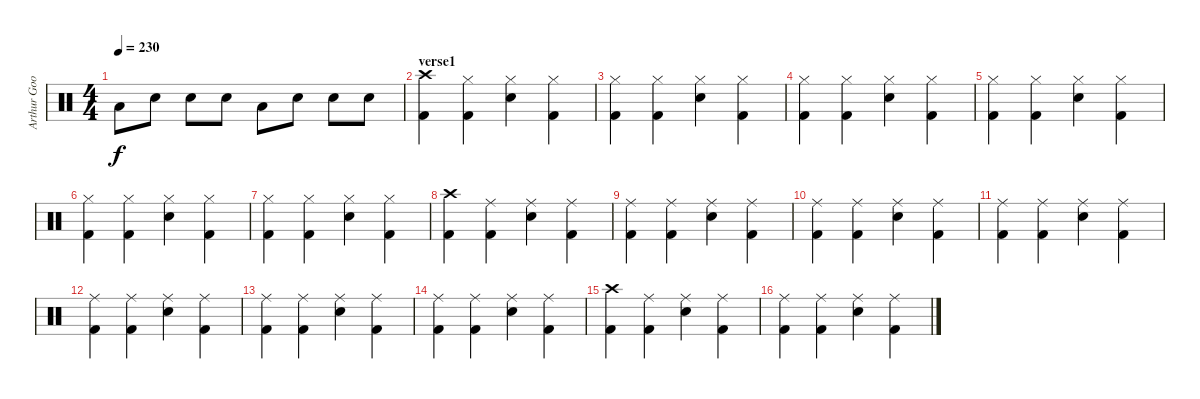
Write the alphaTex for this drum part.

\track ("Arthur Googy" "Arthur Goo") {instrument percussion}
\staff {score}
\articulation defaults
\ts (4 4)
\tempo 230
\clef neutral
\ks c "Low Tom (hit)".8{dy f} "Electric Snare (hit)".8 "Electric Snare (hit)".8 "Electric Snare (hit)".8 "Low Tom (hit)".8 "Electric Snare (hit)".8 "Electric Snare (hit)".8 "Electric Snare (hit)".8
|
\section ("" "verse1")
("Crash high (hit)" "Kick (hit) 2").4 ("Hi-Hat (closed)" "Kick (hit) 2").4 ("Hi-Hat (closed)" "Electric Snare (hit)").4 ("Hi-Hat (closed)" "Kick (hit) 2").4 |
("Hi-Hat (closed)" "Kick (hit) 2").4 ("Hi-Hat (closed)" "Kick (hit) 2").4 ("Hi-Hat (closed)" "Electric Snare (hit)").4 ("Hi-Hat (closed)" "Kick (hit) 2").4 |
("Hi-Hat (closed)" "Kick (hit) 2").4 ("Hi-Hat (closed)" "Kick (hit) 2").4 ("Hi-Hat (closed)" "Electric Snare (hit)").4 ("Hi-Hat (closed)" "Kick (hit) 2").4 |
("Hi-Hat (closed)" "Kick (hit) 2").4 ("Hi-Hat (closed)" "Kick (hit) 2").4 ("Hi-Hat (closed)" "Electric Snare (hit)").4 ("Hi-Hat (closed)" "Kick (hit) 2").4 |
("Hi-Hat (closed)" "Kick (hit) 2").4 ("Hi-Hat (closed)" "Kick (hit) 2").4 ("Hi-Hat (closed)" "Electric Snare (hit)").4 ("Hi-Hat (closed)" "Kick (hit) 2").4 |
("Hi-Hat (closed)" "Kick (hit) 2").4 ("Hi-Hat (closed)" "Kick (hit) 2").4 ("Hi-Hat (closed)" "Electric Snare (hit)").4 ("Hi-Hat (closed)" "Kick (hit) 2").4 |
("Crash high (hit)" "Kick (hit) 2").4 ("Ride (middle)" "Kick (hit) 2").4 ("Ride (middle)" "Electric Snare (hit)").4 ("Ride (middle)" "Kick (hit) 2").4 |
("Ride (middle)" "Kick (hit) 2").4 ("Ride (middle)" "Kick (hit) 2").4 ("Ride (middle)" "Electric Snare (hit)").4 ("Ride (middle)" "Kick (hit) 2").4 |
("Ride (middle)" "Kick (hit) 2").4 ("Ride (middle)" "Kick (hit) 2").4 ("Ride (middle)" "Electric Snare (hit)").4 ("Ride (middle)" "Kick (hit) 2").4 |
("Ride (middle)" "Kick (hit) 2").4 ("Ride (middle)" "Kick (hit) 2").4 ("Ride (middle)" "Electric Snare (hit)").4 ("Ride (middle)" "Kick (hit) 2").4 |
("Ride (middle)" "Kick (hit) 2").4 ("Ride (middle)" "Kick (hit) 2").4 ("Ride (middle)" "Electric Snare (hit)").4 ("Ride (middle)" "Kick (hit) 2").4 |
("Ride (middle)" "Kick (hit) 2").4 ("Ride (middle)" "Kick (hit) 2").4 ("Ride (middle)" "Electric Snare (hit)").4 ("Ride (middle)" "Kick (hit) 2").4 |
("Ride (middle)" "Kick (hit) 2").4 ("Ride (middle)" "Kick (hit) 2").4 ("Ride (middle)" "Electric Snare (hit)").4 ("Ride (middle)" "Kick (hit) 2").4 |
("Crash high (hit)" "Kick (hit) 2").4 ("Ride (middle)" "Kick (hit) 2").4 ("Ride (middle)" "Electric Snare (hit)").4 ("Ride (middle)" "Kick (hit) 2").4 |
("Ride (middle)" "Kick (hit) 2").4 ("Ride (middle)" "Kick (hit) 2").4 ("Ride (middle)" "Electric Snare (hit)").4 ("Ride (middle)" "Kick (hit) 2").4
